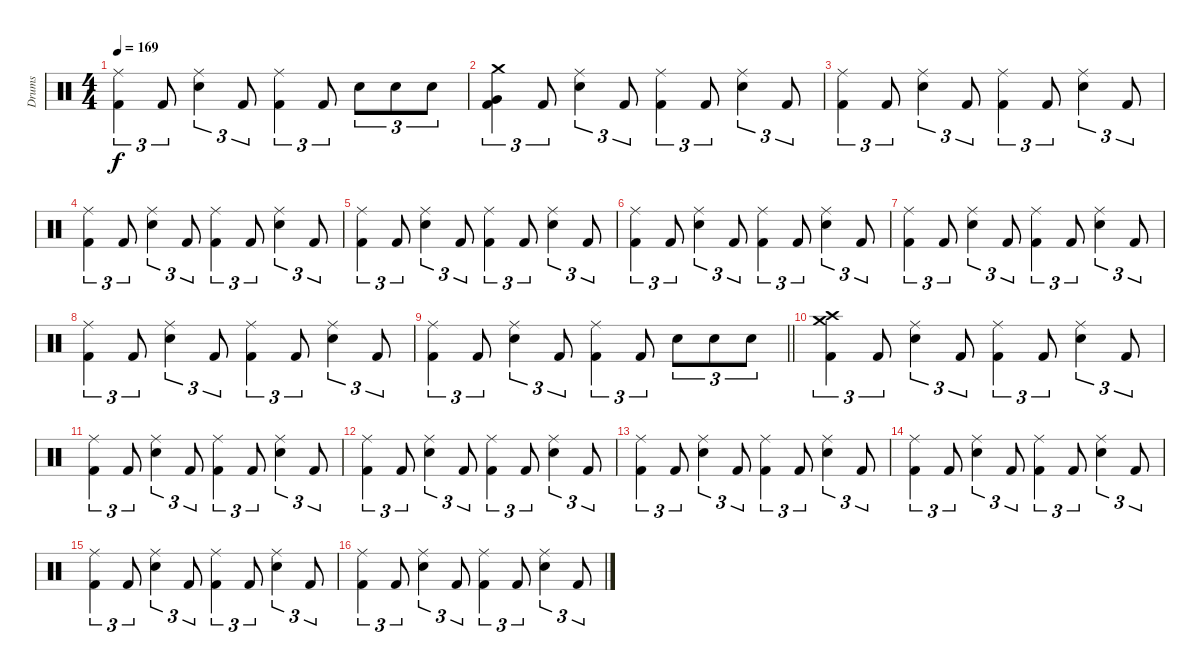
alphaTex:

\track ("Drums" "Drums") {instrument percussion}
\staff {score}
\articulation defaults
\ts (4 4)
\tempo 169
\clef neutral
\ks c
("Ride (middle)" "Kick (hit) 2").4{tu (3 2) dy f} "Kick (hit) 2".8{tu (3 2)} ("Ride (middle)" "Snare (hit) 2").4{tu (3 2)} "Kick (hit) 2".8{tu (3 2)} ("Ride (middle)" "Kick (hit) 2").4{tu (3 2)} "Kick (hit) 2".8{tu (3 2)} "Snare (hit) 2".8{tu (3 2)} "Snare (hit) 2".8{tu (3 2)} "Snare (hit) 2".8{tu (3 2)} |
("Very Low Tom (hit)" "Crash medium (hit)" "Kick (hit) 2").4{tu (3 2)} "Kick (hit) 2".8{tu (3 2)} ("Ride (middle)" "Snare (hit) 2").4{tu (3 2)} "Kick (hit) 2".8{tu (3 2)} ("Ride (middle)" "Kick (hit) 2").4{tu (3 2)} "Kick (hit) 2".8{tu (3 2)} ("Ride (middle)" "Snare (hit) 2").4{tu (3 2)} "Kick (hit) 2".8{tu (3 2)} |
("Ride (middle)" "Kick (hit) 2").4{tu (3 2)} "Kick (hit) 2".8{tu (3 2)} ("Ride (middle)" "Snare (hit) 2").4{tu (3 2)} "Kick (hit) 2".8{tu (3 2)} ("Ride (middle)" "Kick (hit) 2").4{tu (3 2)} "Kick (hit) 2".8{tu (3 2)} ("Ride (middle)" "Snare (hit) 2").4{tu (3 2)} "Kick (hit) 2".8{tu (3 2)} |
("Ride (middle)" "Kick (hit) 2").4{tu (3 2)} "Kick (hit) 2".8{tu (3 2)} ("Ride (middle)" "Snare (hit) 2").4{tu (3 2)} "Kick (hit) 2".8{tu (3 2)} ("Ride (middle)" "Kick (hit) 2").4{tu (3 2)} "Kick (hit) 2".8{tu (3 2)} ("Ride (middle)" "Snare (hit) 2").4{tu (3 2)} "Kick (hit) 2".8{tu (3 2)} |
("Ride (middle)" "Kick (hit) 2").4{tu (3 2)} "Kick (hit) 2".8{tu (3 2)} ("Ride (middle)" "Snare (hit) 2").4{tu (3 2)} "Kick (hit) 2".8{tu (3 2)} ("Ride (middle)" "Kick (hit) 2").4{tu (3 2)} "Kick (hit) 2".8{tu (3 2)} ("Ride (middle)" "Snare (hit) 2").4{tu (3 2)} "Kick (hit) 2".8{tu (3 2)} |
("Ride (middle)" "Kick (hit) 2").4{tu (3 2)} "Kick (hit) 2".8{tu (3 2)} ("Ride (middle)" "Snare (hit) 2").4{tu (3 2)} "Kick (hit) 2".8{tu (3 2)} ("Ride (middle)" "Kick (hit) 2").4{tu (3 2)} "Kick (hit) 2".8{tu (3 2)} ("Ride (middle)" "Snare (hit) 2").4{tu (3 2)} "Kick (hit) 2".8{tu (3 2)} |
("Ride (middle)" "Kick (hit) 2").4{tu (3 2)} "Kick (hit) 2".8{tu (3 2)} ("Ride (middle)" "Snare (hit) 2").4{tu (3 2)} "Kick (hit) 2".8{tu (3 2)} ("Ride (middle)" "Kick (hit) 2").4{tu (3 2)} "Kick (hit) 2".8{tu (3 2)} ("Ride (middle)" "Snare (hit) 2").4{tu (3 2)} "Kick (hit) 2".8{tu (3 2)} |
("Ride (middle)" "Kick (hit) 2").4{tu (3 2)} "Kick (hit) 2".8{tu (3 2)} ("Ride (middle)" "Snare (hit) 2").4{tu (3 2)} "Kick (hit) 2".8{tu (3 2)} ("Ride (middle)" "Kick (hit) 2").4{tu (3 2)} "Kick (hit) 2".8{tu (3 2)} ("Ride (middle)" "Snare (hit) 2").4{tu (3 2)} "Kick (hit) 2".8{tu (3 2)} |
\barLineRight lightlight
("Ride (middle)" "Kick (hit) 2").4{tu (3 2)} "Kick (hit) 2".8{tu (3 2)} ("Ride (middle)" "Snare (hit) 2").4{tu (3 2)} "Kick (hit) 2".8{tu (3 2)} ("Ride (middle)" "Kick (hit) 2").4{tu (3 2)} "Kick (hit) 2".8{tu (3 2)} "Snare (hit) 2".8{tu (3 2)} "Snare (hit) 2".8{tu (3 2)} "Snare (hit) 2".8{tu (3 2)} |
("Crash high (hit)" "Crash medium (hit)" "Kick (hit) 2").4{tu (3 2)} "Kick (hit) 2".8{tu (3 2)} ("Ride (middle)" "Snare (hit) 2").4{tu (3 2)} "Kick (hit) 2".8{tu (3 2)} ("Ride (middle)" "Kick (hit) 2").4{tu (3 2)} "Kick (hit) 2".8{tu (3 2)} ("Ride (middle)" "Snare (hit) 2").4{tu (3 2)} "Kick (hit) 2".8{tu (3 2)} |
("Ride (middle)" "Kick (hit) 2").4{tu (3 2)} "Kick (hit) 2".8{tu (3 2)} ("Ride (middle)" "Snare (hit) 2").4{tu (3 2)} "Kick (hit) 2".8{tu (3 2)} ("Ride (middle)" "Kick (hit) 2").4{tu (3 2)} "Kick (hit) 2".8{tu (3 2)} ("Ride (middle)" "Snare (hit) 2").4{tu (3 2)} "Kick (hit) 2".8{tu (3 2)} |
("Ride (middle)" "Kick (hit) 2").4{tu (3 2)} "Kick (hit) 2".8{tu (3 2)} ("Ride (middle)" "Snare (hit) 2").4{tu (3 2)} "Kick (hit) 2".8{tu (3 2)} ("Ride (middle)" "Kick (hit) 2").4{tu (3 2)} "Kick (hit) 2".8{tu (3 2)} ("Ride (middle)" "Snare (hit) 2").4{tu (3 2)} "Kick (hit) 2".8{tu (3 2)} |
("Ride (middle)" "Kick (hit) 2").4{tu (3 2)} "Kick (hit) 2".8{tu (3 2)} ("Ride (middle)" "Snare (hit) 2").4{tu (3 2)} "Kick (hit) 2".8{tu (3 2)} ("Ride (middle)" "Kick (hit) 2").4{tu (3 2)} "Kick (hit) 2".8{tu (3 2)} ("Ride (middle)" "Snare (hit) 2").4{tu (3 2)} "Kick (hit) 2".8{tu (3 2)} |
("Ride (middle)" "Kick (hit) 2").4{tu (3 2)} "Kick (hit) 2".8{tu (3 2)} ("Ride (middle)" "Snare (hit) 2").4{tu (3 2)} "Kick (hit) 2".8{tu (3 2)} ("Ride (middle)" "Kick (hit) 2").4{tu (3 2)} "Kick (hit) 2".8{tu (3 2)} ("Ride (middle)" "Snare (hit) 2").4{tu (3 2)} "Kick (hit) 2".8{tu (3 2)} |
("Ride (middle)" "Kick (hit) 2").4{tu (3 2)} "Kick (hit) 2".8{tu (3 2)} ("Ride (middle)" "Snare (hit) 2").4{tu (3 2)} "Kick (hit) 2".8{tu (3 2)} ("Ride (middle)" "Kick (hit) 2").4{tu (3 2)} "Kick (hit) 2".8{tu (3 2)} ("Ride (middle)" "Snare (hit) 2").4{tu (3 2)} "Kick (hit) 2".8{tu (3 2)} |
("Ride (middle)" "Kick (hit) 2").4{tu (3 2)} "Kick (hit) 2".8{tu (3 2)} ("Ride (middle)" "Snare (hit) 2").4{tu (3 2)} "Kick (hit) 2".8{tu (3 2)} ("Ride (middle)" "Kick (hit) 2").4{tu (3 2)} "Kick (hit) 2".8{tu (3 2)} ("Ride (middle)" "Snare (hit) 2").4{tu (3 2)} "Kick (hit) 2".8{tu (3 2)}
